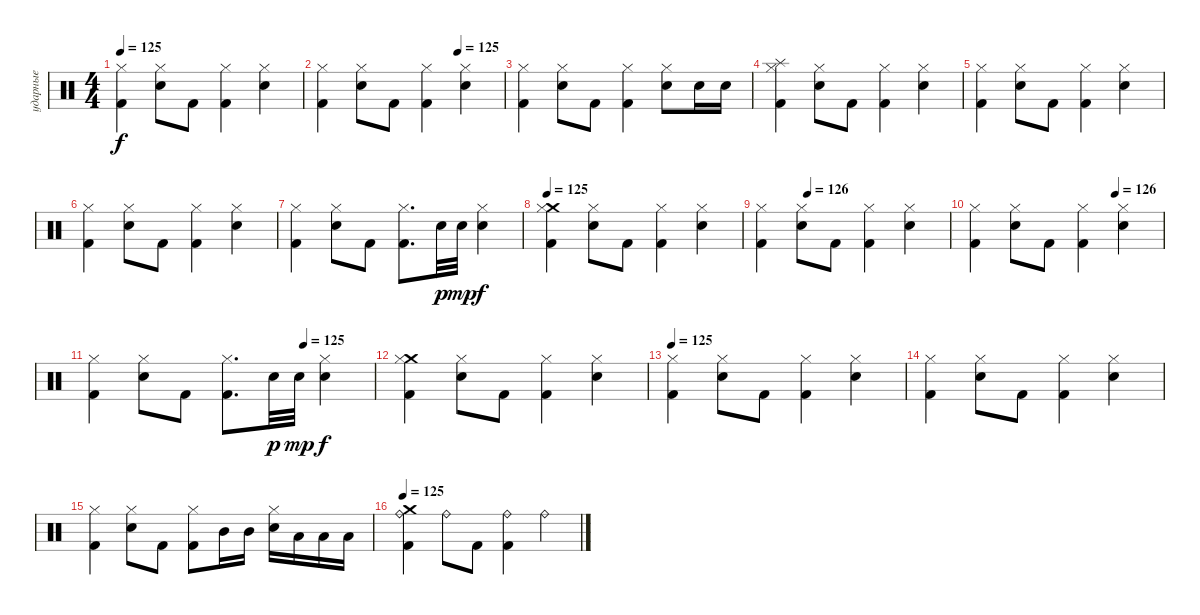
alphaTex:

\track ("ударные" "ударные") {instrument percussion}
\staff {score}
\articulation defaults
\ts (4 4)
\tempo 125
\clef neutral
\ks c
("Hi-Hat (closed)" "Kick (hit) 2").4{dy f} ("Electric Snare (hit)" "Hi-Hat (closed)").8 "Kick (hit) 2".8 ("Hi-Hat (closed)" "Kick (hit) 2").4 ("Hi-Hat (closed)" "Electric Snare (hit)").4 |
\tempo (125 0.75)
("Kick (hit) 2" "Hi-Hat (closed)").4 ("Hi-Hat (closed)" "Electric Snare (hit)").8 "Kick (hit) 2".8 ("Hi-Hat (closed)" "Kick (hit) 2").4 ("Electric Snare (hit)" "Hi-Hat (closed)").4 |
("Hi-Hat (closed)" "Kick (hit) 2").4 ("Hi-Hat (closed)" "Electric Snare (hit)").8 "Kick (hit) 2".8 ("Hi-Hat (closed)" "Kick (hit) 2").4 ("Hi-Hat (closed)" "Electric Snare (hit)").8 "Electric Snare (hit)".16 "Electric Snare (hit)".16 |
("Splash (hit)" "Kick (hit) 2" "Hi-Hat (closed)").4 ("Electric Snare (hit)" "Hi-Hat (closed)").8 "Kick (hit) 2".8 ("Hi-Hat (closed)" "Kick (hit) 2").4 ("Electric Snare (hit)" "Hi-Hat (closed)").4 |
("Kick (hit) 2" "Hi-Hat (closed)").4 ("Hi-Hat (closed)" "Electric Snare (hit)").8 "Kick (hit) 2".8 ("Kick (hit) 2" "Hi-Hat (closed)").4 ("Electric Snare (hit)" "Hi-Hat (closed)").4 |
("Kick (hit) 2" "Hi-Hat (closed)").4 ("Electric Snare (hit)" "Hi-Hat (closed)").8 "Kick (hit) 2".8 ("Kick (hit) 2" "Hi-Hat (closed)").4 ("Hi-Hat (closed)" "Electric Snare (hit)").4 |
("Kick (hit) 2" "Hi-Hat (closed)").4 ("Electric Snare (hit)" "Hi-Hat (closed)").8 "Kick (hit) 2".8 ("Kick (hit) 2" "Hi-Hat (closed)").8{d} "Electric Snare (hit)".32{dy p} "Electric Snare (hit)".32{dy mp} ("Electric Snare (hit)" "Hi-Hat (closed)").4{dy f} |
\tempo 125
("Crash medium (hit)" "Kick (hit) 2" "Hi-Hat (closed)").4 ("Electric Snare (hit)" "Hi-Hat (closed)").8 "Kick (hit) 2".8 ("Kick (hit) 2" "Hi-Hat (closed)").4 ("Electric Snare (hit)" "Hi-Hat (closed)").4 |
\tempo (126 0.25)
("Kick (hit) 2" "Hi-Hat (closed)").4 ("Hi-Hat (closed)" "Electric Snare (hit)").8 "Kick (hit) 2".8 ("Hi-Hat (closed)" "Kick (hit) 2").4 ("Electric Snare (hit)" "Hi-Hat (closed)").4 |
\tempo (126 0.75)
("Kick (hit) 2" "Hi-Hat (closed)").4 ("Hi-Hat (closed)" "Electric Snare (hit)").8 "Kick (hit) 2".8 ("Kick (hit) 2" "Hi-Hat (closed)").4 ("Hi-Hat (closed)" "Electric Snare (hit)").4 |
\tempo (125 0.75)
("Kick (hit) 2" "Hi-Hat (closed)").4 ("Hi-Hat (closed)" "Electric Snare (hit)").8 "Kick (hit) 2".8 ("Hi-Hat (closed)" "Kick (hit) 2").8{d} "Electric Snare (hit)".32{dy p} "Electric Snare (hit)".32{dy mp} ("Electric Snare (hit)" "Hi-Hat (closed)").4{dy f} |
("Crash medium (hit)" "Hi-Hat (closed)" "Kick (hit) 2").4 ("Electric Snare (hit)" "Hi-Hat (closed)").8 "Kick (hit) 2".8 ("Hi-Hat (closed)" "Kick (hit) 2").4 ("Hi-Hat (closed)" "Electric Snare (hit)").4 |
\tempo 125
("Hi-Hat (closed)" "Kick (hit) 2").4 ("Hi-Hat (closed)" "Electric Snare (hit)").8 "Kick (hit) 2".8 ("Hi-Hat (closed)" "Kick (hit) 2").4 ("Electric Snare (hit)" "Hi-Hat (closed)").4 |
("Kick (hit) 2" "Hi-Hat (closed)").4 ("Hi-Hat (closed)" "Electric Snare (hit)").8 "Kick (hit) 2".8 ("Kick (hit) 2" "Hi-Hat (closed)").4 ("Electric Snare (hit)" "Hi-Hat (closed)").4 |
("Kick (hit) 2" "Hi-Hat (closed)").4 ("Hi-Hat (closed)" "Electric Snare (hit)").8 "Kick (hit) 2".8 ("Kick (hit) 2" "Hi-Hat (closed)").8 "Mid Tom (hit)".16 "Mid Tom (hit)".16 ("Hi-Hat (closed)" "Electric Snare (hit)").16 "Low Floor Tom (hit)".16 "Low Floor Tom (hit)".16 "Low Floor Tom (hit)".16 |
\tempo 125
("Crash medium (hit)" "Ride (bell)" "Kick (hit) 2").4 "Ride (bell)".8 "Kick (hit) 2".8 ("Kick (hit) 2" "Ride (bell)").4 "Ride (bell)".4
